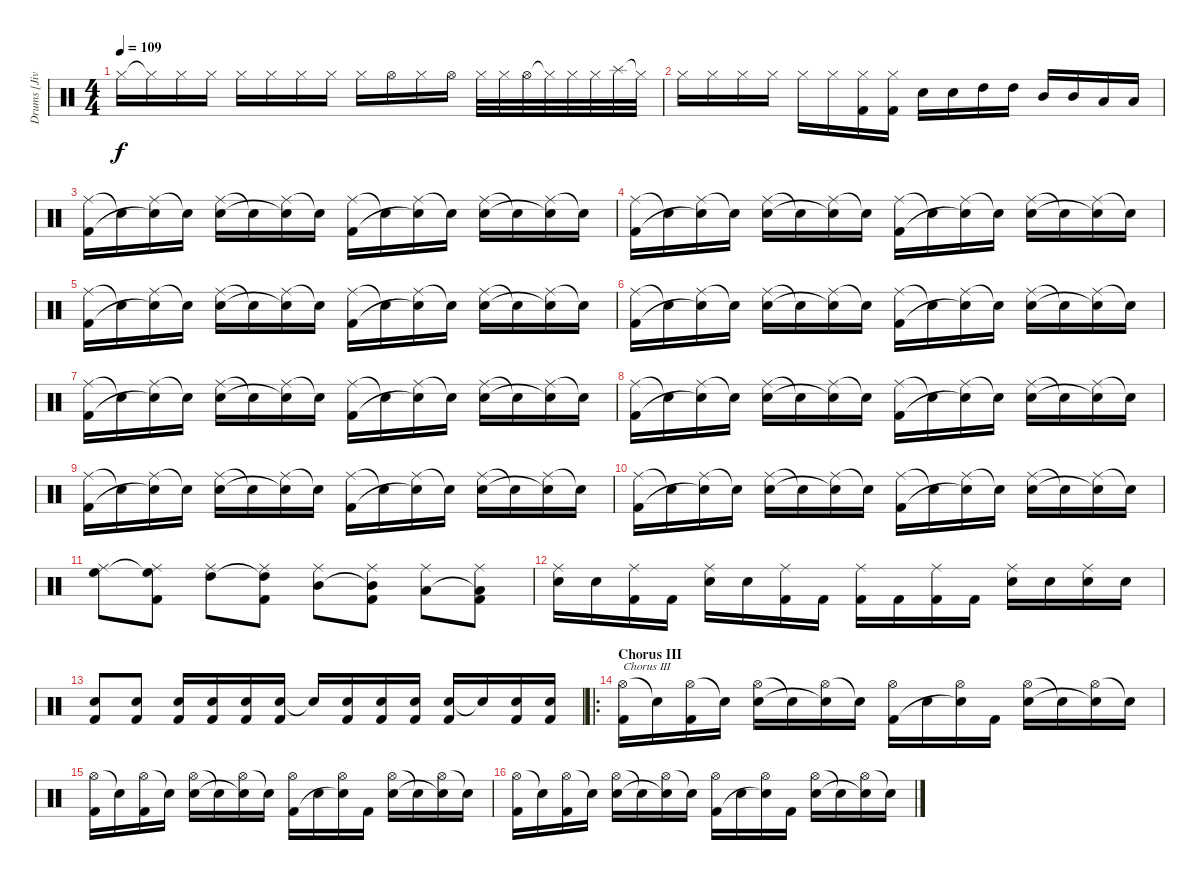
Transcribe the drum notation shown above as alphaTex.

\track ("Drums [Jivarp]" "Drums [Jiv") {instrument percussion}
\staff {score}
\articulation defaults
\ts (4 4)
\tempo 109
\clef neutral
\ks c "Hi-Hat (closed)".16{dy f} "Hi-Hat (closed)"{t}.16 "Hi-Hat (closed)".16 "Hi-Hat (closed)".16 "Hi-Hat (closed)".16 "Hi-Hat (closed)".16 "Hi-Hat (closed)".16 "Hi-Hat (closed)".16 "Hi-Hat (closed)".16 "Hi-Hat (open)".16 "Hi-Hat (closed)".16 "Hi-Hat (open)".16 "Hi-Hat (closed)".32 "Hi-Hat (closed)".32 "Hi-Hat (open)".32 "Hi-Hat (closed)"{t}.32 "Hi-Hat (closed)".32 "Hi-Hat (closed)".32 "Splash (hit)".32 "Hi-Hat (closed)"{t}.32
|
"Hi-Hat (closed)".16 "Hi-Hat (closed)".16 "Hi-Hat (closed)".16 "Hi-Hat (closed)".16 "Hi-Hat (closed)".16 "Hi-Hat (closed)".16 ("Hi-Hat (closed)" "Kick (hit) 2").16 ("Hi-Hat (closed)" "Kick (hit) 2").16 "Electric Snare (hit)".16 "Electric Snare (hit)".16 "High Tom (hit)".16 "High Tom (hit)".16 "Mid Tom (hit)".16 "Mid Tom (hit)".16 "Low Tom (hit)".16 "Low Tom (hit)".16 |
\section ("" "")
("Ride (middle)" "Kick (hit) 2").16 "Snare (hit)"{t}.16 ("Ride (middle)" "Snare (hit)"{t}).16 "Snare (hit)"{t}.16 ("Ride (middle)" "Electric Snare (hit)").16 "Snare (hit)"{t}.16 ("Ride (middle)" "Snare (hit)"{t}).16 "Snare (hit)"{t}.16 ("Ride (middle)" "Kick (hit) 2").16 "Snare (hit)"{t}.16 ("Ride (middle)" "Snare (hit)"{t}).16 "Snare (hit)"{t}.16 ("Ride (middle)" "Electric Snare (hit)").16 "Snare (hit)"{t}.16 ("Ride (middle)" "Snare (hit)"{t}).16 "Snare (hit)"{t}.16 |
("Ride (middle)" "Kick (hit) 2").16 "Snare (hit)"{t}.16 ("Ride (middle)" "Snare (hit)"{t}).16 "Snare (hit)"{t}.16 ("Ride (middle)" "Electric Snare (hit)").16 "Snare (hit)"{t}.16 ("Ride (middle)" "Snare (hit)"{t}).16 "Snare (hit)"{t}.16 ("Ride (middle)" "Kick (hit) 2").16 "Snare (hit)"{t}.16 ("Ride (middle)" "Snare (hit)"{t}).16 "Snare (hit)"{t}.16 ("Ride (middle)" "Electric Snare (hit)").16 "Snare (hit)"{t}.16 ("Ride (middle)" "Snare (hit)"{t}).16 "Snare (hit)"{t}.16 |
("Ride (middle)" "Kick (hit) 2").16 "Snare (hit)"{t}.16 ("Ride (middle)" "Snare (hit)"{t}).16 "Snare (hit)"{t}.16 ("Ride (middle)" "Electric Snare (hit)").16 "Snare (hit)"{t}.16 ("Ride (middle)" "Snare (hit)"{t}).16 "Snare (hit)"{t}.16 ("Ride (middle)" "Kick (hit) 2").16 "Snare (hit)"{t}.16 ("Ride (middle)" "Snare (hit)"{t}).16 "Snare (hit)"{t}.16 ("Ride (middle)" "Electric Snare (hit)").16 "Snare (hit)"{t}.16 ("Ride (middle)" "Snare (hit)"{t}).16 "Snare (hit)"{t}.16 |
("Ride (middle)" "Kick (hit) 2").16 "Snare (hit)"{t}.16 ("Ride (middle)" "Snare (hit)"{t}).16 "Snare (hit)"{t}.16 ("Ride (middle)" "Electric Snare (hit)").16 "Snare (hit)"{t}.16 ("Ride (middle)" "Snare (hit)"{t}).16 "Snare (hit)"{t}.16 ("Ride (middle)" "Kick (hit) 2").16 "Snare (hit)"{t}.16 ("Ride (middle)" "Snare (hit)"{t}).16 "Snare (hit)"{t}.16 ("Ride (middle)" "Electric Snare (hit)").16 "Snare (hit)"{t}.16 ("Ride (middle)" "Snare (hit)"{t}).16 "Snare (hit)"{t}.16 |
("Ride (middle)" "Kick (hit) 2").16 "Snare (hit)"{t}.16 ("Ride (middle)" "Snare (hit)"{t}).16 "Snare (hit)"{t}.16 ("Ride (middle)" "Electric Snare (hit)").16 "Snare (hit)"{t}.16 ("Ride (middle)" "Snare (hit)"{t}).16 "Snare (hit)"{t}.16 ("Ride (middle)" "Kick (hit) 2").16 "Snare (hit)"{t}.16 ("Ride (middle)" "Snare (hit)"{t}).16 "Snare (hit)"{t}.16 ("Ride (middle)" "Electric Snare (hit)").16 "Snare (hit)"{t}.16 ("Ride (middle)" "Snare (hit)"{t}).16 "Snare (hit)"{t}.16 |
("Ride (middle)" "Kick (hit) 2").16 "Snare (hit)"{t}.16 ("Ride (middle)" "Snare (hit)"{t}).16 "Snare (hit)"{t}.16 ("Ride (middle)" "Electric Snare (hit)").16 "Snare (hit)"{t}.16 ("Ride (middle)" "Snare (hit)"{t}).16 "Snare (hit)"{t}.16 ("Ride (middle)" "Kick (hit) 2").16 "Snare (hit)"{t}.16 ("Ride (middle)" "Snare (hit)"{t}).16 "Snare (hit)"{t}.16 ("Ride (middle)" "Electric Snare (hit)").16 "Snare (hit)"{t}.16 ("Ride (middle)" "Snare (hit)"{t}).16 "Snare (hit)"{t}.16 |
("Ride (middle)" "Kick (hit) 2").16 "Snare (hit)"{t}.16 ("Ride (middle)" "Snare (hit)"{t}).16 "Snare (hit)"{t}.16 ("Ride (middle)" "Electric Snare (hit)").16 "Snare (hit)"{t}.16 ("Ride (middle)" "Snare (hit)"{t}).16 "Snare (hit)"{t}.16 ("Ride (middle)" "Kick (hit) 2").16 "Snare (hit)"{t}.16 ("Ride (middle)" "Snare (hit)"{t}).16 "Snare (hit)"{t}.16 ("Ride (middle)" "Electric Snare (hit)").16 "Snare (hit)"{t}.16 ("Ride (middle)" "Snare (hit)"{t}).16 "Snare (hit)"{t}.16 |
("Ride (middle)" "Kick (hit) 2").16 "Snare (hit)"{t}.16 ("Ride (middle)" "Snare (hit)"{t}).16 "Snare (hit)"{t}.16 ("Ride (middle)" "Electric Snare (hit)").16 "Snare (hit)"{t}.16 ("Ride (middle)" "Snare (hit)"{t}).16 "Snare (hit)"{t}.16 ("Ride (middle)" "Kick (hit) 2").16 "Snare (hit)"{t}.16 ("Ride (middle)" "Snare (hit)"{t}).16 "Snare (hit)"{t}.16 ("Ride (middle)" "Electric Snare (hit)").16 "Snare (hit)"{t}.16 ("Ride (middle)" "Snare (hit)"{t}).16 "Snare (hit)"{t}.16 |
("Ride (middle)" "High Floor Tom (hit)").8 ("Ride (middle)" "High Floor Tom (hit)"{t} "Kick (hit) 2").8 ("Ride (middle)" "High Tom (hit)").8 ("Ride (middle)" "High Tom (hit)"{t} "Kick (hit) 2").8 ("Ride (middle)" "Mid Tom (hit)").8 ("Ride (middle)" "Mid Tom (hit)"{t} "Kick (hit) 2").8 ("Ride (middle)" "Low Tom (hit)").8 ("Ride (middle)" "Low Tom (hit)"{t} "Kick (hit) 2").8 |
("Ride (middle)" "Electric Snare (hit)").16 "Electric Snare (hit)".16 ("Ride (middle)" "Kick (hit) 2").16 "Kick (hit) 2".16 ("Ride (middle)" "Electric Snare (hit)").16 "Electric Snare (hit)".16 ("Ride (middle)" "Kick (hit) 2").16 "Kick (hit) 2".16 ("Ride (middle)" "Kick (hit) 2").16 "Kick (hit) 2".16 ("Ride (middle)" "Kick (hit) 2").16 "Kick (hit) 2".16 ("Ride (middle)" "Electric Snare (hit)").16 "Electric Snare (hit)".16 ("Ride (middle)" "Electric Snare (hit)").16 "Electric Snare (hit)".16 |
("Electric Snare (hit)" "Kick (hit) 2").8 ("Electric Snare (hit)" "Kick (hit) 2").8 ("Electric Snare (hit)" "Kick (hit) 2").16 ("Electric Snare (hit)" "Kick (hit) 2").16 ("Electric Snare (hit)" "Kick (hit) 2").16 ("Electric Snare (hit)" "Kick (hit) 2").16 "Electric Snare (hit)"{t}.16 ("Electric Snare (hit)" "Kick (hit) 2").16 ("Electric Snare (hit)" "Kick (hit) 2").16 ("Electric Snare (hit)" "Kick (hit) 2").16 ("Electric Snare (hit)" "Kick (hit) 2").16 "Snare (hit)"{t}.16 ("Electric Snare (hit)" "Kick (hit) 2").16 ("Electric Snare (hit)" "Kick (hit) 2").16 |
\ro
\section ("" "Chorus III")
("Hi-Hat (open)" "Kick (hit) 2").16{txt "Chorus III"} "Snare (hit)"{t}.16 ("Hi-Hat (open)" "Kick (hit) 2").16 "Snare (hit)"{t}.16 ("Hi-Hat (open)" "Electric Snare (hit)").16 "Snare (hit)"{t}.16 ("Hi-Hat (open)" "Snare (hit)"{t}).16 "Snare (hit)"{t}.16 ("Hi-Hat (open)" "Kick (hit) 2").16 "Electric Snare (hit)".16 ("Hi-Hat (open)" "Snare (hit)"{t}).16 "Kick (hit) 2".16 ("Hi-Hat (open)" "Electric Snare (hit)").16 "Snare (hit)"{t}.16 ("Hi-Hat (open)" "Snare (hit)"{t}).16 "Snare (hit)"{t}.16 |
("Hi-Hat (open)" "Kick (hit) 2").16 "Snare (hit)"{t}.16 ("Hi-Hat (open)" "Kick (hit) 2").16 "Snare (hit)"{t}.16 ("Hi-Hat (open)" "Electric Snare (hit)").16 "Snare (hit)"{t}.16 ("Hi-Hat (open)" "Snare (hit)"{t}).16 "Snare (hit)"{t}.16 ("Hi-Hat (open)" "Kick (hit) 2").16 "Electric Snare (hit)".16 ("Hi-Hat (open)" "Snare (hit)"{t}).16 "Kick (hit) 2".16 ("Hi-Hat (open)" "Electric Snare (hit)").16 "Snare (hit)"{t}.16 ("Hi-Hat (open)" "Snare (hit)"{t}).16 "Snare (hit)"{t}.16 |
("Hi-Hat (open)" "Kick (hit) 2").16 "Snare (hit)"{t}.16 ("Hi-Hat (open)" "Kick (hit) 2").16 "Snare (hit)"{t}.16 ("Hi-Hat (open)" "Electric Snare (hit)").16 "Snare (hit)"{t}.16 ("Hi-Hat (open)" "Snare (hit)"{t}).16 "Snare (hit)"{t}.16 ("Hi-Hat (open)" "Kick (hit) 2").16 "Electric Snare (hit)".16 ("Hi-Hat (open)" "Snare (hit)"{t}).16 "Kick (hit) 2".16 ("Hi-Hat (open)" "Electric Snare (hit)").16 "Snare (hit)"{t}.16 ("Hi-Hat (open)" "Snare (hit)"{t}).16 "Snare (hit)"{t}.16
